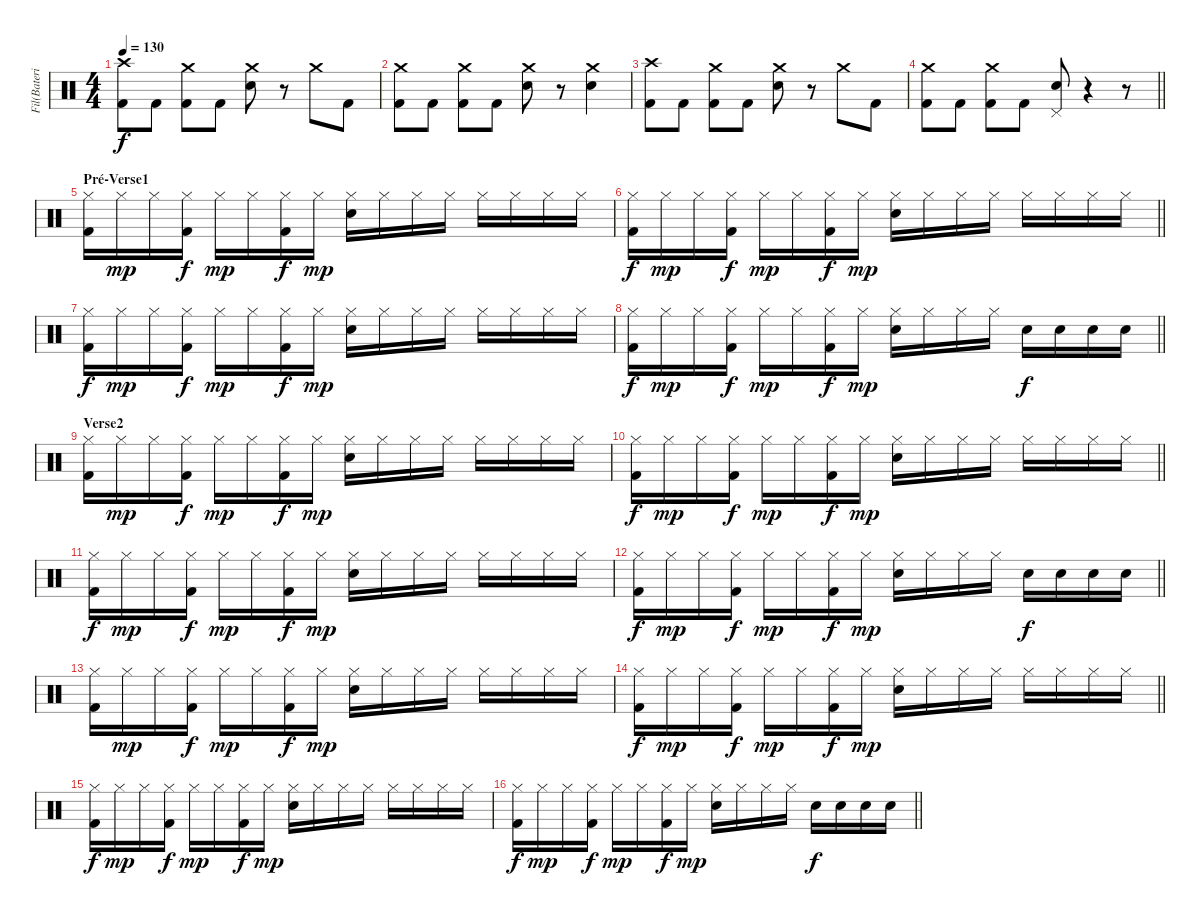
\track ("Fil(Bateria)" "Fil(Bateri") {instrument percussion}
\staff {score}
\articulation defaults
\ts (4 4)
\tempo 130
\clef neutral
\ks c
("Crash high (hit)" "Kick (hit) 2").8{dy f} "Kick (hit) 2".8 ("Crash medium (hit)" "Kick (hit) 2").8 "Kick (hit) 2".8 ("Crash medium (hit)" "Electric Snare (hit)").8 r.8 "Crash medium (hit)".8 "Kick (hit) 2".8 |
("Crash medium (hit)" "Kick (hit) 2").8 "Kick (hit) 2".8 ("Crash medium (hit)" "Kick (hit) 2").8 "Kick (hit) 2".8 ("Crash medium (hit)" "Electric Snare (hit)").8 r.8 ("Crash medium (hit)" "Electric Snare (hit)").4 |
("Crash high (hit)" "Kick (hit) 2").8 "Kick (hit) 2".8 ("Crash medium (hit)" "Kick (hit) 2").8 "Kick (hit) 2".8 ("Crash medium (hit)" "Electric Snare (hit)").8 r.8 "Crash medium (hit)".8 "Kick (hit) 2".8 |
\barLineRight lightlight
("Crash medium (hit)" "Kick (hit) 2").8 "Kick (hit) 2".8 ("Crash medium (hit)" "Kick (hit) 2").8 "Kick (hit) 2".8 ("Pedal Hi-Hat (hit)" "Electric Snare (hit)").8 r.4 r.8 |
\section ("" "Pré-Verse1")
("Hi-Hat (closed)" "Kick (hit) 2").16 "Hi-Hat (closed)".16{dy mp} "Hi-Hat (closed)".16 ("Hi-Hat (closed)" "Kick (hit) 2").16{dy f} "Hi-Hat (closed)".16{dy mp} "Hi-Hat (closed)".16 ("Hi-Hat (closed)" "Kick (hit) 2").16{dy f} "Hi-Hat (closed)".16{dy mp} ("Hi-Hat (closed)" "Electric Snare (hit)").16 "Hi-Hat (closed)".16 "Hi-Hat (closed)".16 "Hi-Hat (closed)".16 "Hi-Hat (closed)".16 "Hi-Hat (closed)".16 "Hi-Hat (closed)".16 "Hi-Hat (closed)".16 |
\barLineRight lightlight
("Hi-Hat (closed)" "Kick (hit) 2").16{dy f} "Hi-Hat (closed)".16{dy mp} "Hi-Hat (closed)".16 ("Hi-Hat (closed)" "Kick (hit) 2").16{dy f} "Hi-Hat (closed)".16{dy mp} "Hi-Hat (closed)".16 ("Hi-Hat (closed)" "Kick (hit) 2").16{dy f} "Hi-Hat (closed)".16{dy mp} ("Hi-Hat (closed)" "Electric Snare (hit)").16 "Hi-Hat (closed)".16 "Hi-Hat (closed)".16 "Hi-Hat (closed)".16 "Hi-Hat (closed)".16 "Hi-Hat (closed)".16 "Hi-Hat (closed)".16 "Hi-Hat (closed)".16 |
("Hi-Hat (closed)" "Kick (hit) 2").16{dy f} "Hi-Hat (closed)".16{dy mp} "Hi-Hat (closed)".16 ("Hi-Hat (closed)" "Kick (hit) 2").16{dy f} "Hi-Hat (closed)".16{dy mp} "Hi-Hat (closed)".16 ("Hi-Hat (closed)" "Kick (hit) 2").16{dy f} "Hi-Hat (closed)".16{dy mp} ("Hi-Hat (closed)" "Electric Snare (hit)").16 "Hi-Hat (closed)".16 "Hi-Hat (closed)".16 "Hi-Hat (closed)".16 "Hi-Hat (closed)".16 "Hi-Hat (closed)".16 "Hi-Hat (closed)".16 "Hi-Hat (closed)".16 |
\barLineRight lightlight
("Hi-Hat (closed)" "Kick (hit) 2").16{dy f} "Hi-Hat (closed)".16{dy mp} "Hi-Hat (closed)".16 ("Hi-Hat (closed)" "Kick (hit) 2").16{dy f} "Hi-Hat (closed)".16{dy mp} "Hi-Hat (closed)".16 ("Hi-Hat (closed)" "Kick (hit) 2").16{dy f} "Hi-Hat (closed)".16{dy mp} ("Hi-Hat (closed)" "Electric Snare (hit)").16 "Hi-Hat (closed)".16 "Hi-Hat (closed)".16 "Hi-Hat (closed)".16 "Electric Snare (hit)".16{dy f} "Electric Snare (hit)".16 "Electric Snare (hit)".16 "Electric Snare (hit)".16 |
\section ("" "Verse2")
("Hi-Hat (closed)" "Kick (hit) 2").16 "Hi-Hat (closed)".16{dy mp} "Hi-Hat (closed)".16 ("Hi-Hat (closed)" "Kick (hit) 2").16{dy f} "Hi-Hat (closed)".16{dy mp} "Hi-Hat (closed)".16 ("Hi-Hat (closed)" "Kick (hit) 2").16{dy f} "Hi-Hat (closed)".16{dy mp} ("Hi-Hat (closed)" "Electric Snare (hit)").16 "Hi-Hat (closed)".16 "Hi-Hat (closed)".16 "Hi-Hat (closed)".16 "Hi-Hat (closed)".16 "Hi-Hat (closed)".16 "Hi-Hat (closed)".16 "Hi-Hat (closed)".16 |
\barLineRight lightlight
("Hi-Hat (closed)" "Kick (hit) 2").16{dy f} "Hi-Hat (closed)".16{dy mp} "Hi-Hat (closed)".16 ("Hi-Hat (closed)" "Kick (hit) 2").16{dy f} "Hi-Hat (closed)".16{dy mp} "Hi-Hat (closed)".16 ("Hi-Hat (closed)" "Kick (hit) 2").16{dy f} "Hi-Hat (closed)".16{dy mp} ("Hi-Hat (closed)" "Electric Snare (hit)").16 "Hi-Hat (closed)".16 "Hi-Hat (closed)".16 "Hi-Hat (closed)".16 "Hi-Hat (closed)".16 "Hi-Hat (closed)".16 "Hi-Hat (closed)".16 "Hi-Hat (closed)".16 |
("Hi-Hat (closed)" "Kick (hit) 2").16{dy f} "Hi-Hat (closed)".16{dy mp} "Hi-Hat (closed)".16 ("Hi-Hat (closed)" "Kick (hit) 2").16{dy f} "Hi-Hat (closed)".16{dy mp} "Hi-Hat (closed)".16 ("Hi-Hat (closed)" "Kick (hit) 2").16{dy f} "Hi-Hat (closed)".16{dy mp} ("Hi-Hat (closed)" "Electric Snare (hit)").16 "Hi-Hat (closed)".16 "Hi-Hat (closed)".16 "Hi-Hat (closed)".16 "Hi-Hat (closed)".16 "Hi-Hat (closed)".16 "Hi-Hat (closed)".16 "Hi-Hat (closed)".16 |
\barLineRight lightlight
("Hi-Hat (closed)" "Kick (hit) 2").16{dy f} "Hi-Hat (closed)".16{dy mp} "Hi-Hat (closed)".16 ("Hi-Hat (closed)" "Kick (hit) 2").16{dy f} "Hi-Hat (closed)".16{dy mp} "Hi-Hat (closed)".16 ("Hi-Hat (closed)" "Kick (hit) 2").16{dy f} "Hi-Hat (closed)".16{dy mp} ("Hi-Hat (closed)" "Electric Snare (hit)").16 "Hi-Hat (closed)".16 "Hi-Hat (closed)".16 "Hi-Hat (closed)".16 "Electric Snare (hit)".16{dy f} "Electric Snare (hit)".16 "Electric Snare (hit)".16 "Electric Snare (hit)".16 |
("Hi-Hat (closed)" "Kick (hit) 2").16 "Hi-Hat (closed)".16{dy mp} "Hi-Hat (closed)".16 ("Hi-Hat (closed)" "Kick (hit) 2").16{dy f} "Hi-Hat (closed)".16{dy mp} "Hi-Hat (closed)".16 ("Hi-Hat (closed)" "Kick (hit) 2").16{dy f} "Hi-Hat (closed)".16{dy mp} ("Hi-Hat (closed)" "Electric Snare (hit)").16 "Hi-Hat (closed)".16 "Hi-Hat (closed)".16 "Hi-Hat (closed)".16 "Hi-Hat (closed)".16 "Hi-Hat (closed)".16 "Hi-Hat (closed)".16 "Hi-Hat (closed)".16 |
\barLineRight lightlight
("Hi-Hat (closed)" "Kick (hit) 2").16{dy f} "Hi-Hat (closed)".16{dy mp} "Hi-Hat (closed)".16 ("Hi-Hat (closed)" "Kick (hit) 2").16{dy f} "Hi-Hat (closed)".16{dy mp} "Hi-Hat (closed)".16 ("Hi-Hat (closed)" "Kick (hit) 2").16{dy f} "Hi-Hat (closed)".16{dy mp} ("Hi-Hat (closed)" "Electric Snare (hit)").16 "Hi-Hat (closed)".16 "Hi-Hat (closed)".16 "Hi-Hat (closed)".16 "Hi-Hat (closed)".16 "Hi-Hat (closed)".16 "Hi-Hat (closed)".16 "Hi-Hat (closed)".16 |
("Hi-Hat (closed)" "Kick (hit) 2").16{dy f} "Hi-Hat (closed)".16{dy mp} "Hi-Hat (closed)".16 ("Hi-Hat (closed)" "Kick (hit) 2").16{dy f} "Hi-Hat (closed)".16{dy mp} "Hi-Hat (closed)".16 ("Hi-Hat (closed)" "Kick (hit) 2").16{dy f} "Hi-Hat (closed)".16{dy mp} ("Hi-Hat (closed)" "Electric Snare (hit)").16 "Hi-Hat (closed)".16 "Hi-Hat (closed)".16 "Hi-Hat (closed)".16 "Hi-Hat (closed)".16 "Hi-Hat (closed)".16 "Hi-Hat (closed)".16 "Hi-Hat (closed)".16 |
\barLineRight lightlight
("Hi-Hat (closed)" "Kick (hit) 2").16{dy f} "Hi-Hat (closed)".16{dy mp} "Hi-Hat (closed)".16 ("Hi-Hat (closed)" "Kick (hit) 2").16{dy f} "Hi-Hat (closed)".16{dy mp} "Hi-Hat (closed)".16 ("Hi-Hat (closed)" "Kick (hit) 2").16{dy f} "Hi-Hat (closed)".16{dy mp} ("Hi-Hat (closed)" "Electric Snare (hit)").16 "Hi-Hat (closed)".16 "Hi-Hat (closed)".16 "Hi-Hat (closed)".16 "Electric Snare (hit)".16{dy f} "Electric Snare (hit)".16 "Electric Snare (hit)".16 "Electric Snare (hit)".16
